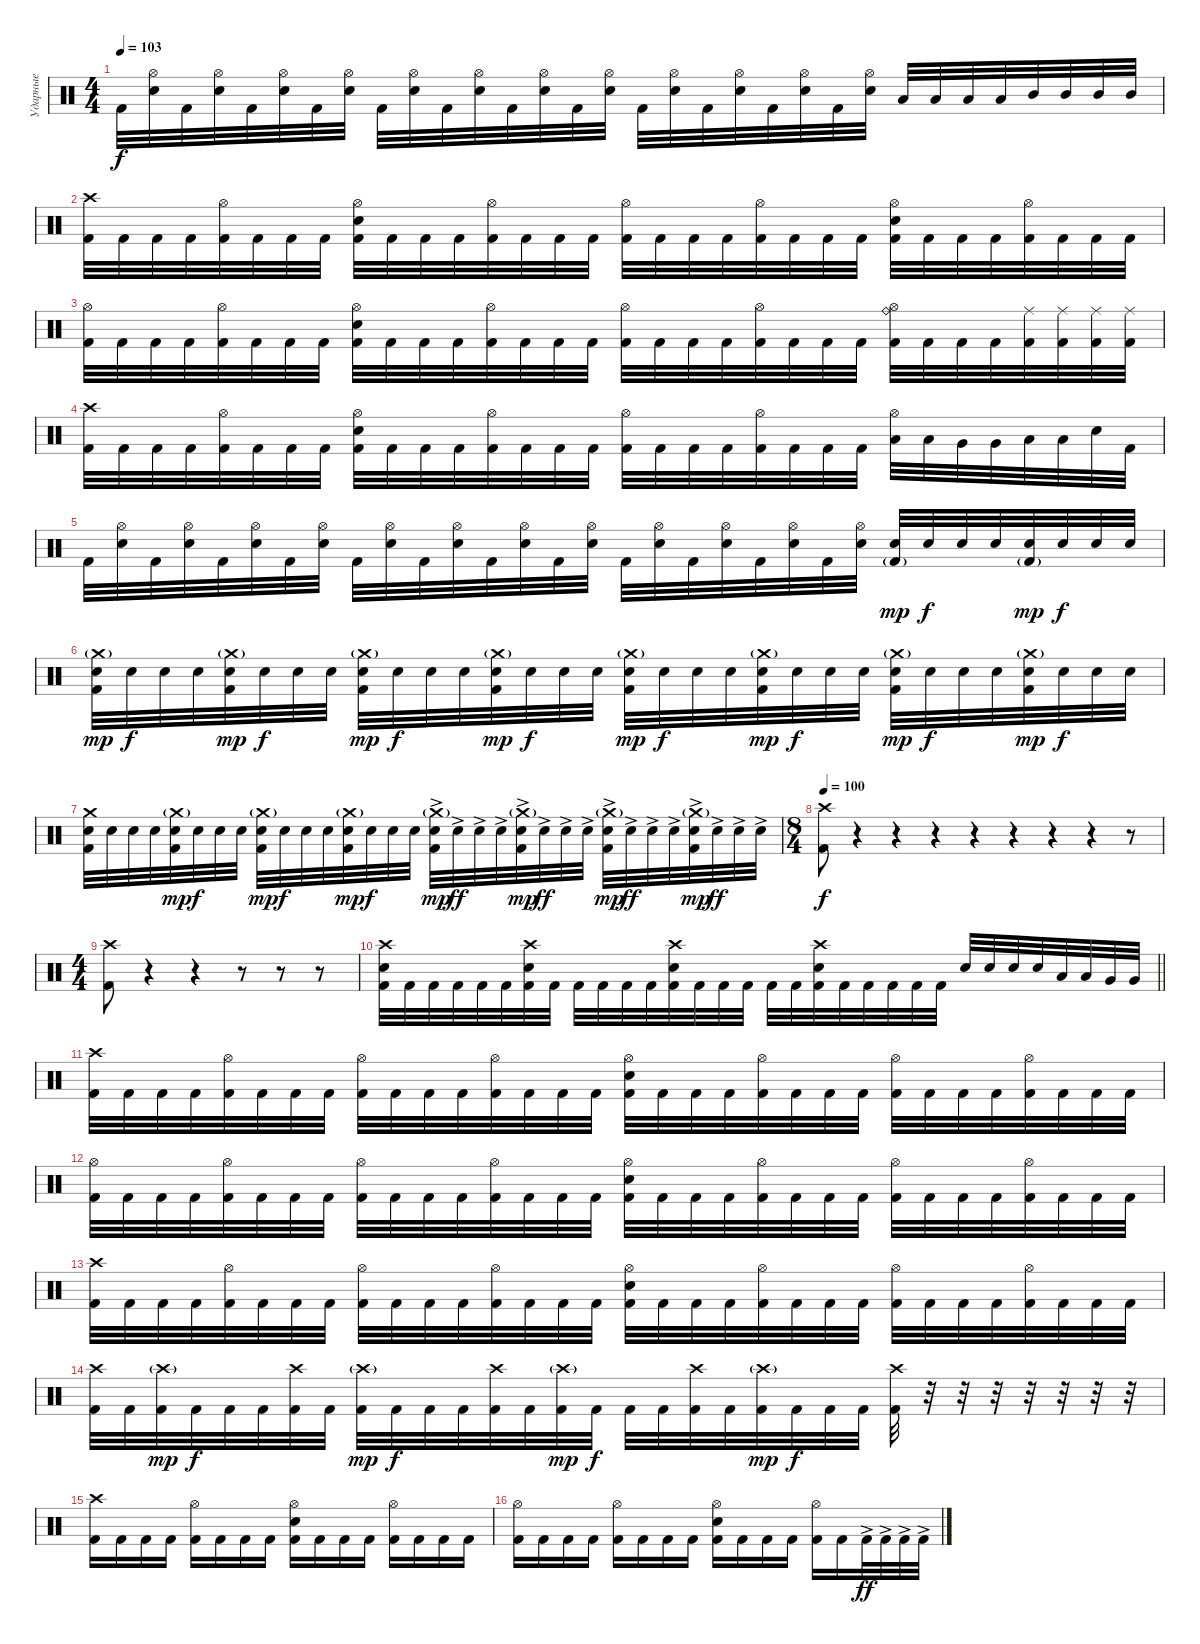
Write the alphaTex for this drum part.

\track ("Ударные" "Ударные") {instrument percussion}
\staff {score}
\articulation defaults
\ts (4 4)
\tempo 103
\clef neutral
\ks c "Kick (hit) 2".32{dy f}
("Electric Snare (hit)" "Hi-Hat (open)").32 "Kick (hit) 2".32 ("Electric Snare (hit)" "Hi-Hat (open)").32 "Kick (hit) 2".32 ("Electric Snare (hit)" "Hi-Hat (open)").32 "Kick (hit) 2".32 ("Electric Snare (hit)" "Hi-Hat (open)").32 "Kick (hit) 2".32 ("Electric Snare (hit)" "Hi-Hat (open)").32 "Kick (hit) 2".32 ("Electric Snare (hit)" "Hi-Hat (open)").32 "Kick (hit) 2".32 ("Electric Snare (hit)" "Hi-Hat (open)").32 "Kick (hit) 2".32 ("Electric Snare (hit)" "Hi-Hat (open)").32 "Kick (hit) 2".32 ("Electric Snare (hit)" "Hi-Hat (open)").32 "Kick (hit) 2".32 ("Electric Snare (hit)" "Hi-Hat (open)").32 "Kick (hit) 2".32 ("Electric Snare (hit)" "Hi-Hat (open)").32 "Kick (hit) 2".32 ("Electric Snare (hit)" "Hi-Hat (open)").32 "Low Tom (hit)".32 "Low Tom (hit)".32 "Low Tom (hit)".32 "Low Tom (hit)".32 "Mid Tom (hit)".32 "Mid Tom (hit)".32 "Mid Tom (hit)".32 "Mid Tom (hit)".32 |
("Kick (hit) 2" "Crash high (hit)").32 "Kick (hit) 2".32 "Kick (hit) 2".32 "Kick (hit) 2".32 ("Kick (hit) 2" "Hi-Hat (open)").32 "Kick (hit) 2".32 "Kick (hit) 2".32 "Kick (hit) 2".32 ("Kick (hit) 2" "Electric Snare (hit)" "Hi-Hat (open)").32 "Kick (hit) 2".32 "Kick (hit) 2".32 "Kick (hit) 2".32 ("Kick (hit) 2" "Hi-Hat (open)").32 "Kick (hit) 2".32 "Kick (hit) 2".32 "Kick (hit) 2".32 ("Kick (hit) 2" "Hi-Hat (open)").32 "Kick (hit) 2".32 "Kick (hit) 2".32 "Kick (hit) 2".32 ("Kick (hit) 2" "Hi-Hat (open)").32 "Kick (hit) 2".32 "Kick (hit) 2".32 "Kick (hit) 2".32 ("Kick (hit) 2" "Electric Snare (hit)" "Hi-Hat (open)").32 "Kick (hit) 2".32 "Kick (hit) 2".32 "Kick (hit) 2".32 ("Kick (hit) 2" "Hi-Hat (open)").32 "Kick (hit) 2".32 "Kick (hit) 2".32 "Kick (hit) 2".32 |
("Kick (hit) 2" "Hi-Hat (open)").32 "Kick (hit) 2".32 "Kick (hit) 2".32 "Kick (hit) 2".32 ("Kick (hit) 2" "Hi-Hat (open)").32 "Kick (hit) 2".32 "Kick (hit) 2".32 "Kick (hit) 2".32 ("Kick (hit) 2" "Electric Snare (hit)" "Hi-Hat (open)").32 "Kick (hit) 2".32 "Kick (hit) 2".32 "Kick (hit) 2".32 ("Kick (hit) 2" "Hi-Hat (open)").32 "Kick (hit) 2".32 "Kick (hit) 2".32 "Kick (hit) 2".32 ("Kick (hit) 2" "Hi-Hat (open)").32 "Kick (hit) 2".32 "Kick (hit) 2".32 "Kick (hit) 2".32 ("Kick (hit) 2" "Hi-Hat (open)").32 "Kick (hit) 2".32 "Kick (hit) 2".32 "Kick (hit) 2".32 ("Hi-Hat (open)" "Ride (bell)" "Kick (hit) 2").32 "Kick (hit) 2".32 "Kick (hit) 2".32 "Kick (hit) 2".32 ("Ride (middle)" "Kick (hit) 2").32 ("Ride (middle)" "Kick (hit) 2").32 ("Ride (middle)" "Kick (hit) 2").32 ("Ride (middle)" "Kick (hit) 2").32 |
("Kick (hit) 2" "Crash high (hit)").32 "Kick (hit) 2".32 "Kick (hit) 2".32 "Kick (hit) 2".32 ("Kick (hit) 2" "Hi-Hat (open)").32 "Kick (hit) 2".32 "Kick (hit) 2".32 "Kick (hit) 2".32 ("Kick (hit) 2" "Electric Snare (hit)" "Hi-Hat (open)").32 "Kick (hit) 2".32 "Kick (hit) 2".32 "Kick (hit) 2".32 ("Kick (hit) 2" "Hi-Hat (open)").32 "Kick (hit) 2".32 "Kick (hit) 2".32 "Kick (hit) 2".32 ("Kick (hit) 2" "Hi-Hat (open)").32 "Kick (hit) 2".32 "Kick (hit) 2".32 "Kick (hit) 2".32 ("Kick (hit) 2" "Hi-Hat (open)").32 "Kick (hit) 2".32 "Kick (hit) 2".32 "Kick (hit) 2".32 ("Low Tom (hit)" "Hi-Hat (open)").32 "Low Tom (hit)".32 "Very Low Tom (hit)".32 "Very Low Tom (hit)".32 "Low Floor Tom (hit)".32 "Low Floor Tom (hit)".32 "Electric Snare (hit)".32 "Kick (hit) 2".32 |
"Kick (hit) 2".32 ("Electric Snare (hit)" "Hi-Hat (open)").32 "Kick (hit) 2".32 ("Electric Snare (hit)" "Hi-Hat (open)").32 "Kick (hit) 2".32 ("Electric Snare (hit)" "Hi-Hat (open)").32 "Kick (hit) 2".32 ("Electric Snare (hit)" "Hi-Hat (open)").32 "Kick (hit) 2".32 ("Electric Snare (hit)" "Hi-Hat (open)").32 "Kick (hit) 2".32 ("Electric Snare (hit)" "Hi-Hat (open)").32 "Kick (hit) 2".32 ("Electric Snare (hit)" "Hi-Hat (open)").32 "Kick (hit) 2".32 ("Electric Snare (hit)" "Hi-Hat (open)").32 "Kick (hit) 2".32 ("Electric Snare (hit)" "Hi-Hat (open)").32 "Kick (hit) 2".32 ("Electric Snare (hit)" "Hi-Hat (open)").32 "Kick (hit) 2".32 ("Electric Snare (hit)" "Hi-Hat (open)").32 "Kick (hit) 2".32 ("Electric Snare (hit)" "Hi-Hat (open)").32 ("Electric Snare (hit)" "Kick (hit) 2"{g}).32{dy mp} "Electric Snare (hit)".32{dy f} "Electric Snare (hit)".32 "Electric Snare (hit)".32 ("Electric Snare (hit)" "Kick (hit) 2"{g}).32{dy mp} "Electric Snare (hit)".32{dy f} "Electric Snare (hit)".32 "Electric Snare (hit)".32 |
("Electric Snare (hit)" "Kick (hit) 2" "Crash medium (hit)"{g}).32{dy mp} "Electric Snare (hit)".32{dy f} "Electric Snare (hit)".32 "Electric Snare (hit)".32 ("Electric Snare (hit)" "Kick (hit) 2" "Crash medium (hit)"{g}).32{dy mp} "Electric Snare (hit)".32{dy f} "Electric Snare (hit)".32 "Electric Snare (hit)".32 ("Electric Snare (hit)" "Kick (hit) 2" "Crash medium (hit)"{g}).32{dy mp} "Electric Snare (hit)".32{dy f} "Electric Snare (hit)".32 "Electric Snare (hit)".32 ("Electric Snare (hit)" "Kick (hit) 2" "Crash medium (hit)"{g}).32{dy mp} "Electric Snare (hit)".32{dy f} "Electric Snare (hit)".32 "Electric Snare (hit)".32 ("Electric Snare (hit)" "Kick (hit) 2" "Crash medium (hit)"{g}).32{dy mp} "Electric Snare (hit)".32{dy f} "Electric Snare (hit)".32 "Electric Snare (hit)".32 ("Electric Snare (hit)" "Kick (hit) 2" "Crash medium (hit)"{g}).32{dy mp} "Electric Snare (hit)".32{dy f} "Electric Snare (hit)".32 "Electric Snare (hit)".32 ("Electric Snare (hit)" "Kick (hit) 2" "Crash medium (hit)"{g}).32{dy mp} "Electric Snare (hit)".32{dy f} "Electric Snare (hit)".32 "Electric Snare (hit)".32 ("Electric Snare (hit)" "Kick (hit) 2" "Crash medium (hit)"{g}).32{dy mp} "Electric Snare (hit)".32{dy f} "Electric Snare (hit)".32 "Electric Snare (hit)".32 |
("Electric Snare (hit)" "Kick (hit) 2" "Crash medium (hit)").32 "Electric Snare (hit)".32 "Electric Snare (hit)".32 "Electric Snare (hit)".32 ("Electric Snare (hit)" "Kick (hit) 2" "Crash medium (hit)"{g}).32{dy mp} "Electric Snare (hit)".32{dy f} "Electric Snare (hit)".32 "Electric Snare (hit)".32 ("Electric Snare (hit)" "Kick (hit) 2" "Crash medium (hit)"{g}).32{dy mp} "Electric Snare (hit)".32{dy f} "Electric Snare (hit)".32 "Electric Snare (hit)".32 ("Electric Snare (hit)" "Kick (hit) 2" "Crash medium (hit)"{g}).32{dy mp} "Electric Snare (hit)".32{dy f} "Electric Snare (hit)".32 "Electric Snare (hit)".32 ("Electric Snare (hit)"{ac} "Kick (hit) 2"{ac} "Crash medium (hit)"{g}).32{dy mp} "Electric Snare (hit)"{ac}.32{dy ff} "Electric Snare (hit)"{ac}.32 "Electric Snare (hit)"{ac}.32 ("Electric Snare (hit)"{ac} "Kick (hit) 2"{ac} "Crash medium (hit)"{g}).32{dy mp} "Electric Snare (hit)"{ac}.32{dy ff} "Electric Snare (hit)"{ac}.32 "Electric Snare (hit)"{ac}.32 ("Electric Snare (hit)"{ac} "Kick (hit) 2"{ac} "Crash medium (hit)"{g}).32{dy mp} "Electric Snare (hit)"{ac}.32{dy ff} "Electric Snare (hit)"{ac}.32 "Electric Snare (hit)"{ac}.32 ("Electric Snare (hit)"{ac} "Kick (hit) 2"{ac} "Crash medium (hit)"{g}).32{dy mp} "Electric Snare (hit)"{ac}.32{dy ff} "Electric Snare (hit)"{ac}.32 "Electric Snare (hit)"{ac}.32 |
\ts (8 4)
\tempo 100
("Kick (hit) 2" "Crash high (hit)").8{dy f} r.4{volume 2} r.4 r.4 r.4 r.4 r.4 r.4 r.8{volume 16} |
\ts (4 4)
("Kick (hit) 2" "Crash high (hit)").8 r.4{volume 2} r.4 r.8 r.8 r.8{volume 16} |
\barLineRight lightlight
("Kick (hit) 2" "Electric Snare (hit)" "Crash high (hit)").32 "Kick (hit) 2".32 "Kick (hit) 2".32 "Kick (hit) 2".32 "Kick (hit) 2".32 "Kick (hit) 2".32 ("Kick (hit) 2" "Electric Snare (hit)" "Crash high (hit)").32 "Kick (hit) 2".32 "Kick (hit) 2".32 "Kick (hit) 2".32 "Kick (hit) 2".32 "Kick (hit) 2".32 ("Kick (hit) 2" "Electric Snare (hit)" "Crash high (hit)").32 "Kick (hit) 2".32 "Kick (hit) 2".32 "Kick (hit) 2".32 "Kick (hit) 2".32 "Kick (hit) 2".32 ("Kick (hit) 2" "Electric Snare (hit)" "Crash high (hit)").32 "Kick (hit) 2".32 "Kick (hit) 2".32 "Kick (hit) 2".32 "Kick (hit) 2".32 "Kick (hit) 2".32 "Electric Snare (hit)".32 "Electric Snare (hit)".32 "Electric Snare (hit)".32 "Electric Snare (hit)".32 "Low Tom (hit)".32 "Low Tom (hit)".32 "Very Low Tom (hit)".32 "Very Low Tom (hit)".32 |
\section ("" "")
("Kick (hit) 2" "Crash high (hit)").32 "Kick (hit) 2".32 "Kick (hit) 2".32 "Kick (hit) 2".32 ("Kick (hit) 2" "Hi-Hat (open)").32 "Kick (hit) 2".32 "Kick (hit) 2".32 "Kick (hit) 2".32 ("Kick (hit) 2" "Hi-Hat (open)").32 "Kick (hit) 2".32 "Kick (hit) 2".32 "Kick (hit) 2".32 ("Kick (hit) 2" "Hi-Hat (open)").32 "Kick (hit) 2".32 "Kick (hit) 2".32 "Kick (hit) 2".32 ("Kick (hit) 2" "Electric Snare (hit)" "Hi-Hat (open)").32 "Kick (hit) 2".32 "Kick (hit) 2".32 "Kick (hit) 2".32 ("Kick (hit) 2" "Hi-Hat (open)").32 "Kick (hit) 2".32 "Kick (hit) 2".32 "Kick (hit) 2".32 ("Kick (hit) 2" "Hi-Hat (open)").32 "Kick (hit) 2".32 "Kick (hit) 2".32 "Kick (hit) 2".32 ("Kick (hit) 2" "Hi-Hat (open)").32 "Kick (hit) 2".32 "Kick (hit) 2".32 "Kick (hit) 2".32 |
("Kick (hit) 2" "Hi-Hat (open)").32 "Kick (hit) 2".32 "Kick (hit) 2".32 "Kick (hit) 2".32 ("Kick (hit) 2" "Hi-Hat (open)").32 "Kick (hit) 2".32 "Kick (hit) 2".32 "Kick (hit) 2".32 ("Kick (hit) 2" "Hi-Hat (open)").32 "Kick (hit) 2".32 "Kick (hit) 2".32 "Kick (hit) 2".32 ("Kick (hit) 2" "Hi-Hat (open)").32 "Kick (hit) 2".32 "Kick (hit) 2".32 "Kick (hit) 2".32 ("Kick (hit) 2" "Electric Snare (hit)" "Hi-Hat (open)").32 "Kick (hit) 2".32 "Kick (hit) 2".32 "Kick (hit) 2".32 ("Kick (hit) 2" "Hi-Hat (open)").32 "Kick (hit) 2".32 "Kick (hit) 2".32 "Kick (hit) 2".32 ("Kick (hit) 2" "Hi-Hat (open)").32 "Kick (hit) 2".32 "Kick (hit) 2".32 "Kick (hit) 2".32 ("Kick (hit) 2" "Hi-Hat (open)").32 "Kick (hit) 2".32 "Kick (hit) 2".32 "Kick (hit) 2".32 |
("Kick (hit) 2" "Crash high (hit)").32 "Kick (hit) 2".32 "Kick (hit) 2".32 "Kick (hit) 2".32 ("Kick (hit) 2" "Hi-Hat (open)").32 "Kick (hit) 2".32 "Kick (hit) 2".32 "Kick (hit) 2".32 ("Kick (hit) 2" "Hi-Hat (open)").32 "Kick (hit) 2".32 "Kick (hit) 2".32 "Kick (hit) 2".32 ("Kick (hit) 2" "Hi-Hat (open)").32 "Kick (hit) 2".32 "Kick (hit) 2".32 "Kick (hit) 2".32 ("Kick (hit) 2" "Electric Snare (hit)" "Hi-Hat (open)").32 "Kick (hit) 2".32 "Kick (hit) 2".32 "Kick (hit) 2".32 ("Kick (hit) 2" "Hi-Hat (open)").32 "Kick (hit) 2".32 "Kick (hit) 2".32 "Kick (hit) 2".32 ("Kick (hit) 2" "Hi-Hat (open)").32 "Kick (hit) 2".32 "Kick (hit) 2".32 "Kick (hit) 2".32 ("Kick (hit) 2" "Hi-Hat (open)").32 "Kick (hit) 2".32 "Kick (hit) 2".32 "Kick (hit) 2".32 |
("Kick (hit) 2" "Crash high (hit)").32 "Kick (hit) 2".32 ("Kick (hit) 2" "Crash high (hit)"{g}).32{dy mp} "Kick (hit) 2".32{dy f} "Kick (hit) 2".32 "Kick (hit) 2".32 ("Kick (hit) 2" "Crash high (hit)").32 "Kick (hit) 2".32 ("Kick (hit) 2" "Crash high (hit)"{g}).32{dy mp} "Kick (hit) 2".32{dy f} "Kick (hit) 2".32 "Kick (hit) 2".32 ("Kick (hit) 2" "Crash high (hit)").32 "Kick (hit) 2".32 ("Kick (hit) 2" "Crash high (hit)"{g}).32{dy mp} "Kick (hit) 2".32{dy f} "Kick (hit) 2".32 "Kick (hit) 2".32 ("Kick (hit) 2" "Crash high (hit)").32 "Kick (hit) 2".32 ("Kick (hit) 2" "Crash high (hit)"{g}).32{dy mp} "Kick (hit) 2".32{dy f} "Kick (hit) 2".32 "Kick (hit) 2".32 ("Kick (hit) 2" "Crash high (hit)").32 r.32 r.32 r.32 r.32{volume 1} r.32 r.32 r.32 |
("Kick (hit) 2" "Crash high (hit)").16{volume 16} "Kick (hit) 2".16 "Kick (hit) 2".16 "Kick (hit) 2".16 ("Kick (hit) 2" "Hi-Hat (open)").16 "Kick (hit) 2".16 "Kick (hit) 2".16 "Kick (hit) 2".16 ("Kick (hit) 2" "Electric Snare (hit)" "Hi-Hat (open)").16 "Kick (hit) 2".16 "Kick (hit) 2".16 "Kick (hit) 2".16 ("Kick (hit) 2" "Hi-Hat (open)").16 "Kick (hit) 2".16 "Kick (hit) 2".16 "Kick (hit) 2".16 |
("Kick (hit) 2" "Hi-Hat (open)").16 "Kick (hit) 2".16 "Kick (hit) 2".16 "Kick (hit) 2".16 ("Kick (hit) 2" "Hi-Hat (open)").16 "Kick (hit) 2".16 "Kick (hit) 2".16 "Kick (hit) 2".16 ("Kick (hit) 2" "Electric Snare (hit)" "Hi-Hat (open)").16 "Kick (hit) 2".16 "Kick (hit) 2".16 "Kick (hit) 2".16 ("Kick (hit) 2" "Hi-Hat (open)").16 "Kick (hit) 2".16 "Kick (hit) 2"{ac}.32{dy ff} "Kick (hit) 2"{ac}.32 "Kick (hit) 2"{ac}.32 "Kick (hit) 2"{ac}.32
